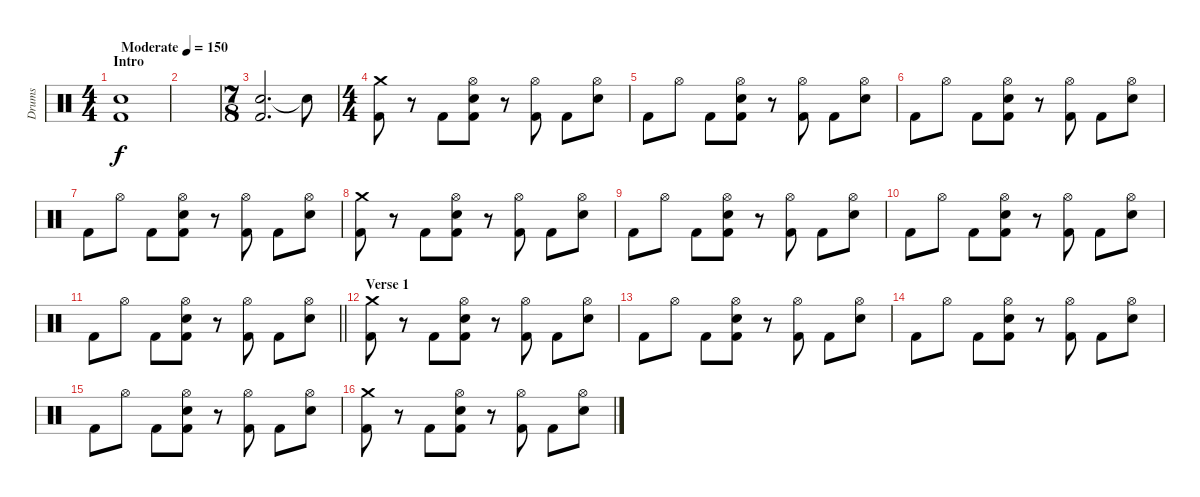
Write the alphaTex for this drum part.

\track ("Drums" "Drums") {instrument percussion}
\staff {score}
\articulation defaults
\ts (4 4)
\section ("" "Intro")
\tempo (150 "Moderate")
\clef neutral
\ks c
("Snare (hit) 2" "Kick (hit) 2").1{dy f} |
|
\ts (7 8)
("Snare (hit) 2" "Kick (hit) 2").2{d} "Snare (hit)"{t}.8 |
\ts (4 4)
("Crash medium (hit)" "Kick (hit) 2").8 r.8 "Kick (hit) 2".8 ("Hi-Hat (open)" "Snare (hit) 2" "Kick (hit) 2").8 r.8 ("Hi-Hat (open)" "Kick (hit) 2").8 "Kick (hit) 2".8 ("Hi-Hat (open)" "Snare (hit) 2").8 |
"Kick (hit) 2".8 "Hi-Hat (open)".8 "Kick (hit) 2".8 ("Hi-Hat (open)" "Snare (hit) 2" "Kick (hit) 2").8 r.8 ("Hi-Hat (open)" "Kick (hit) 2").8 "Kick (hit) 2".8 ("Hi-Hat (open)" "Snare (hit) 2").8 |
"Kick (hit) 2".8 "Hi-Hat (open)".8 "Kick (hit) 2".8 ("Hi-Hat (open)" "Snare (hit) 2" "Kick (hit) 2").8 r.8 ("Hi-Hat (open)" "Kick (hit) 2").8 "Kick (hit) 2".8 ("Hi-Hat (open)" "Snare (hit) 2").8 |
"Kick (hit) 2".8 "Hi-Hat (open)".8 "Kick (hit) 2".8 ("Hi-Hat (open)" "Snare (hit) 2" "Kick (hit) 2").8 r.8 ("Hi-Hat (open)" "Kick (hit) 2").8 "Kick (hit) 2".8 ("Hi-Hat (open)" "Snare (hit) 2").8 |
("Crash medium (hit)" "Kick (hit) 2").8 r.8 "Kick (hit) 2".8 ("Hi-Hat (open)" "Snare (hit) 2" "Kick (hit) 2").8 r.8 ("Hi-Hat (open)" "Kick (hit) 2").8 "Kick (hit) 2".8 ("Hi-Hat (open)" "Snare (hit) 2").8 |
"Kick (hit) 2".8 "Hi-Hat (open)".8 "Kick (hit) 2".8 ("Hi-Hat (open)" "Snare (hit) 2" "Kick (hit) 2").8 r.8 ("Hi-Hat (open)" "Kick (hit) 2").8 "Kick (hit) 2".8 ("Hi-Hat (open)" "Snare (hit) 2").8 |
"Kick (hit) 2".8 "Hi-Hat (open)".8 "Kick (hit) 2".8 ("Hi-Hat (open)" "Snare (hit) 2" "Kick (hit) 2").8 r.8 ("Hi-Hat (open)" "Kick (hit) 2").8 "Kick (hit) 2".8 ("Hi-Hat (open)" "Snare (hit) 2").8 |
\barLineRight lightlight "Kick (hit) 2".8 "Hi-Hat (open)".8 "Kick (hit) 2".8
("Hi-Hat (open)" "Snare (hit) 2" "Kick (hit) 2").8 r.8 ("Hi-Hat (open)" "Kick (hit) 2").8 "Kick (hit) 2".8 ("Hi-Hat (open)" "Snare (hit) 2").8 |
\section ("" "Verse 1")
("Crash medium (hit)" "Kick (hit) 2").8 r.8 "Kick (hit) 2".8 ("Hi-Hat (open)" "Snare (hit) 2" "Kick (hit) 2").8 r.8 ("Hi-Hat (open)" "Kick (hit) 2").8 "Kick (hit) 2".8 ("Hi-Hat (open)" "Snare (hit) 2").8 |
"Kick (hit) 2".8 "Hi-Hat (open)".8 "Kick (hit) 2".8 ("Hi-Hat (open)" "Snare (hit) 2" "Kick (hit) 2").8 r.8 ("Hi-Hat (open)" "Kick (hit) 2").8 "Kick (hit) 2".8 ("Hi-Hat (open)" "Snare (hit) 2").8 |
"Kick (hit) 2".8 "Hi-Hat (open)".8 "Kick (hit) 2".8 ("Hi-Hat (open)" "Snare (hit) 2" "Kick (hit) 2").8 r.8 ("Hi-Hat (open)" "Kick (hit) 2").8 "Kick (hit) 2".8 ("Hi-Hat (open)" "Snare (hit) 2").8 |
"Kick (hit) 2".8 "Hi-Hat (open)".8 "Kick (hit) 2".8 ("Hi-Hat (open)" "Snare (hit) 2" "Kick (hit) 2").8 r.8 ("Hi-Hat (open)" "Kick (hit) 2").8 "Kick (hit) 2".8 ("Hi-Hat (open)" "Snare (hit) 2").8 |
("Crash medium (hit)" "Kick (hit) 2").8 r.8 "Kick (hit) 2".8 ("Hi-Hat (open)" "Snare (hit) 2" "Kick (hit) 2").8 r.8 ("Hi-Hat (open)" "Kick (hit) 2").8 "Kick (hit) 2".8 ("Hi-Hat (open)" "Snare (hit) 2").8
